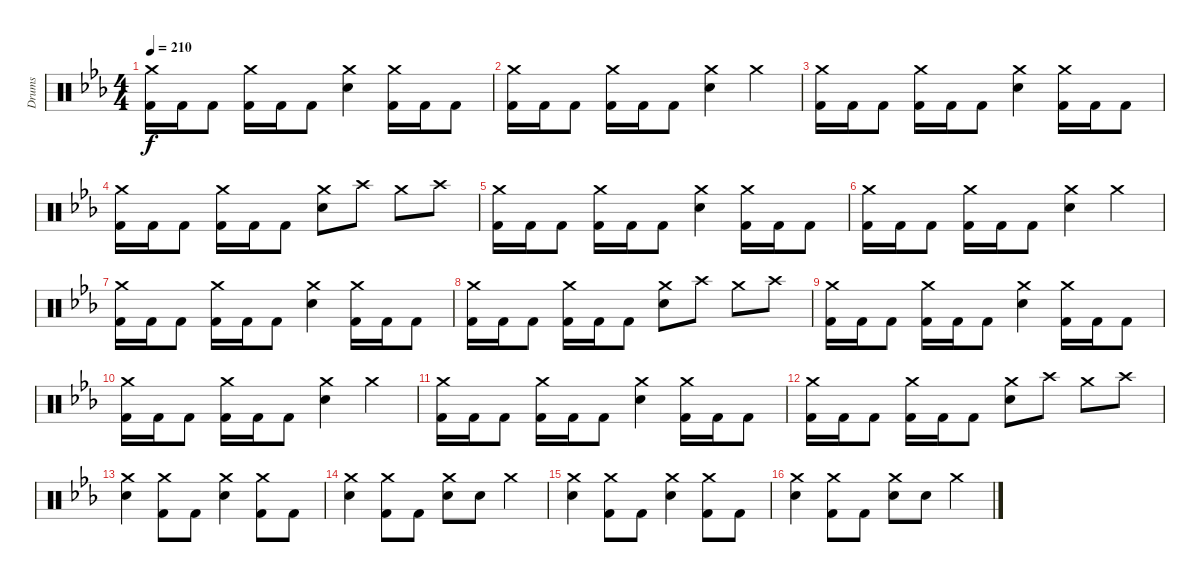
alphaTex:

\track ("Drums" "Drums") {instrument percussion}
\staff {score}
\articulation defaults
\ts (4 4)
\tempo 210
\clef neutral
\ks cminor
("Crash medium (hit)" "Kick (hit) 2").16{dy f} "Kick (hit) 2".16 "Kick (hit) 2".8 ("Crash medium (hit)" "Kick (hit) 2").16 "Kick (hit) 2".16 "Kick (hit) 2".8 ("Crash medium (hit)" "Electric Snare (hit)").4 ("Crash medium (hit)" "Kick (hit) 2").16 "Kick (hit) 2".16 "Kick (hit) 2".8 |
("Crash medium (hit)" "Kick (hit) 2").16 "Kick (hit) 2".16 "Kick (hit) 2".8 ("Crash medium (hit)" "Kick (hit) 2").16 "Kick (hit) 2".16 "Kick (hit) 2".8 ("Crash medium (hit)" "Electric Snare (hit)").4 "Crash medium (hit)".4 |
("Crash medium (hit)" "Kick (hit) 2").16 "Kick (hit) 2".16 "Kick (hit) 2".8 ("Crash medium (hit)" "Kick (hit) 2").16 "Kick (hit) 2".16 "Kick (hit) 2".8 ("Crash medium (hit)" "Electric Snare (hit)").4 ("Crash medium (hit)" "Kick (hit) 2").16 "Kick (hit) 2".16 "Kick (hit) 2".8 |
("Crash medium (hit)" "Kick (hit) 2").16 "Kick (hit) 2".16 "Kick (hit) 2".8 ("Crash medium (hit)" "Kick (hit) 2").16 "Kick (hit) 2".16 "Kick (hit) 2".8 ("Crash medium (hit)" "Electric Snare (hit)").8 "Crash high (hit)".8 "Crash medium (hit)".8 "Crash high (hit)".8 |
("Crash medium (hit)" "Kick (hit) 2").16 "Kick (hit) 2".16 "Kick (hit) 2".8 ("Crash medium (hit)" "Kick (hit) 2").16 "Kick (hit) 2".16 "Kick (hit) 2".8 ("Crash medium (hit)" "Electric Snare (hit)").4 ("Crash medium (hit)" "Kick (hit) 2").16 "Kick (hit) 2".16 "Kick (hit) 2".8 |
("Crash medium (hit)" "Kick (hit) 2").16 "Kick (hit) 2".16 "Kick (hit) 2".8 ("Crash medium (hit)" "Kick (hit) 2").16 "Kick (hit) 2".16 "Kick (hit) 2".8 ("Crash medium (hit)" "Electric Snare (hit)").4 "Crash medium (hit)".4 |
("Crash medium (hit)" "Kick (hit) 2").16 "Kick (hit) 2".16 "Kick (hit) 2".8 ("Crash medium (hit)" "Kick (hit) 2").16 "Kick (hit) 2".16 "Kick (hit) 2".8 ("Crash medium (hit)" "Electric Snare (hit)").4 ("Crash medium (hit)" "Kick (hit) 2").16 "Kick (hit) 2".16 "Kick (hit) 2".8 |
("Crash medium (hit)" "Kick (hit) 2").16 "Kick (hit) 2".16 "Kick (hit) 2".8 ("Crash medium (hit)" "Kick (hit) 2").16 "Kick (hit) 2".16 "Kick (hit) 2".8 ("Crash medium (hit)" "Electric Snare (hit)").8 "Crash high (hit)".8 "Crash medium (hit)".8 "Crash high (hit)".8 |
("Crash medium (hit)" "Kick (hit) 2").16 "Kick (hit) 2".16 "Kick (hit) 2".8 ("Crash medium (hit)" "Kick (hit) 2").16 "Kick (hit) 2".16 "Kick (hit) 2".8 ("Crash medium (hit)" "Electric Snare (hit)").4 ("Crash medium (hit)" "Kick (hit) 2").16 "Kick (hit) 2".16 "Kick (hit) 2".8 |
("Crash medium (hit)" "Kick (hit) 2").16 "Kick (hit) 2".16 "Kick (hit) 2".8 ("Crash medium (hit)" "Kick (hit) 2").16 "Kick (hit) 2".16 "Kick (hit) 2".8 ("Crash medium (hit)" "Electric Snare (hit)").4 "Crash medium (hit)".4 |
("Crash medium (hit)" "Kick (hit) 2").16 "Kick (hit) 2".16 "Kick (hit) 2".8 ("Crash medium (hit)" "Kick (hit) 2").16 "Kick (hit) 2".16 "Kick (hit) 2".8 ("Crash medium (hit)" "Electric Snare (hit)").4 ("Crash medium (hit)" "Kick (hit) 2").16 "Kick (hit) 2".16 "Kick (hit) 2".8 |
("Crash medium (hit)" "Kick (hit) 2").16 "Kick (hit) 2".16 "Kick (hit) 2".8 ("Crash medium (hit)" "Kick (hit) 2").16 "Kick (hit) 2".16 "Kick (hit) 2".8 ("Crash medium (hit)" "Electric Snare (hit)").8 "Crash high (hit)".8 "Crash medium (hit)".8 "Crash high (hit)".8 |
("Crash medium (hit)" "Electric Snare (hit)").4 ("Crash medium (hit)" "Kick (hit) 2").8 "Kick (hit) 2".8 ("Crash medium (hit)" "Electric Snare (hit)").4 ("Crash medium (hit)" "Kick (hit) 2").8 "Kick (hit) 2".8 |
("Crash medium (hit)" "Electric Snare (hit)").4 ("Crash medium (hit)" "Kick (hit) 2").8 "Kick (hit) 2".8 ("Crash medium (hit)" "Electric Snare (hit)").8 "Electric Snare (hit)".8 "Crash medium (hit)".4 |
("Crash medium (hit)" "Electric Snare (hit)").4 ("Crash medium (hit)" "Kick (hit) 2").8 "Kick (hit) 2".8 ("Crash medium (hit)" "Electric Snare (hit)").4 ("Crash medium (hit)" "Kick (hit) 2").8 "Kick (hit) 2".8 |
("Crash medium (hit)" "Electric Snare (hit)").4 ("Crash medium (hit)" "Kick (hit) 2").8 "Kick (hit) 2".8 ("Crash medium (hit)" "Electric Snare (hit)").8 "Electric Snare (hit)".8 "Crash medium (hit)".4
